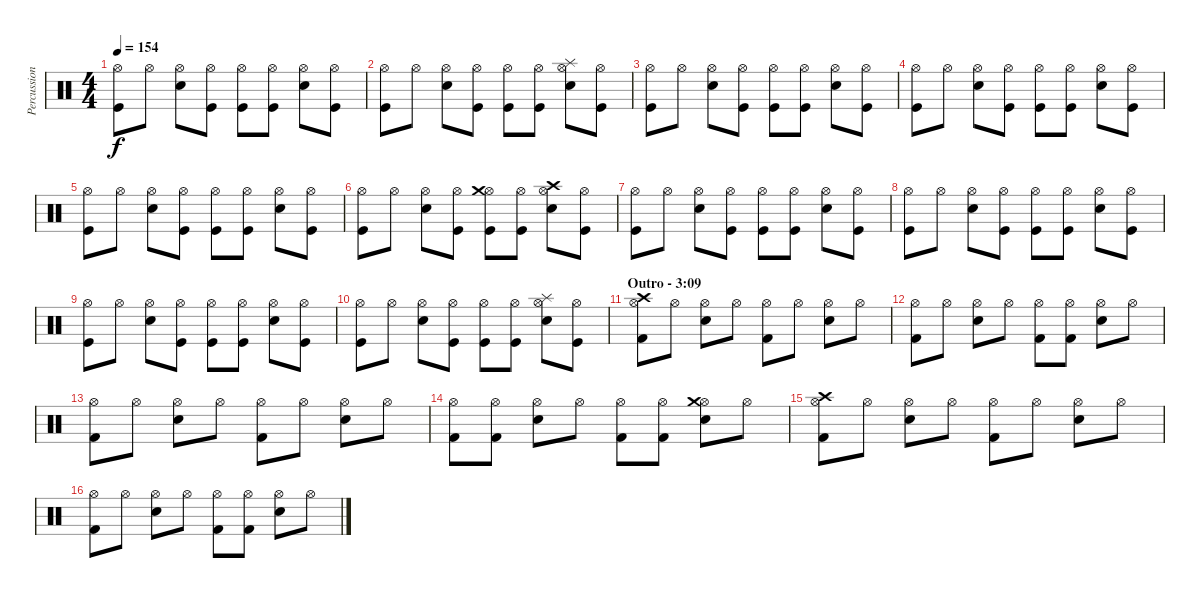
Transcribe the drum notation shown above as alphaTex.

\track ("Percussioni" "Percussion") {instrument percussion}
\staff {score}
\articulation defaults
\ts (4 4)
\tempo 154
\clef neutral
\ks c
("Hi-Hat (open)" "Kick (hit)").8{dy f} "Hi-Hat (open)".8 ("Hi-Hat (open)" "Electric Snare (hit)").8 ("Hi-Hat (open)" "Kick (hit)").8 ("Hi-Hat (open)" "Kick (hit)").8 ("Hi-Hat (open)" "Kick (hit)").8 ("Hi-Hat (open)" "Electric Snare (hit)").8 ("Hi-Hat (open)" "Kick (hit)").8 |
("Hi-Hat (open)" "Kick (hit)").8 "Hi-Hat (open)".8 ("Hi-Hat (open)" "Electric Snare (hit)").8 ("Hi-Hat (open)" "Kick (hit)").8 ("Hi-Hat (open)" "Kick (hit)").8 ("Hi-Hat (open)" "Kick (hit)").8 ("Hi-Hat (open)" "Splash (hit)" "Electric Snare (hit)").8 ("Hi-Hat (open)" "Kick (hit)").8 |
("Hi-Hat (open)" "Kick (hit)").8 "Hi-Hat (open)".8 ("Hi-Hat (open)" "Electric Snare (hit)").8 ("Hi-Hat (open)" "Kick (hit)").8 ("Hi-Hat (open)" "Kick (hit)").8 ("Hi-Hat (open)" "Kick (hit)").8 ("Hi-Hat (open)" "Electric Snare (hit)").8 ("Hi-Hat (open)" "Kick (hit)").8 |
("Hi-Hat (open)" "Kick (hit)").8 "Hi-Hat (open)".8 ("Hi-Hat (open)" "Electric Snare (hit)").8 ("Hi-Hat (open)" "Kick (hit)").8 ("Hi-Hat (open)" "Kick (hit)").8 ("Hi-Hat (open)" "Kick (hit)").8 ("Hi-Hat (open)" "Electric Snare (hit)").8 ("Hi-Hat (open)" "Kick (hit)").8 |
("Hi-Hat (open)" "Kick (hit)").8 "Hi-Hat (open)".8 ("Hi-Hat (open)" "Electric Snare (hit)").8 ("Hi-Hat (open)" "Kick (hit)").8 ("Hi-Hat (open)" "Kick (hit)").8 ("Hi-Hat (open)" "Kick (hit)").8 ("Hi-Hat (open)" "Electric Snare (hit)").8 ("Hi-Hat (open)" "Kick (hit)").8 |
("Hi-Hat (open)" "Kick (hit)").8 "Hi-Hat (open)".8 ("Hi-Hat (open)" "Electric Snare (hit)").8 ("Hi-Hat (open)" "Kick (hit)").8 ("Hi-Hat (open)" "Crash medium (hit)" "Kick (hit)").8 ("Hi-Hat (open)" "Kick (hit)").8 ("Hi-Hat (open)" "Crash high (hit)" "Electric Snare (hit)").8 ("Hi-Hat (open)" "Kick (hit)").8 |
("Hi-Hat (open)" "Kick (hit)").8 "Hi-Hat (open)".8 ("Hi-Hat (open)" "Electric Snare (hit)").8 ("Hi-Hat (open)" "Kick (hit)").8 ("Hi-Hat (open)" "Kick (hit)").8 ("Hi-Hat (open)" "Kick (hit)").8 ("Hi-Hat (open)" "Electric Snare (hit)").8 ("Hi-Hat (open)" "Kick (hit)").8 |
("Hi-Hat (open)" "Kick (hit)").8 "Hi-Hat (open)".8 ("Hi-Hat (open)" "Electric Snare (hit)").8 ("Hi-Hat (open)" "Kick (hit)").8 ("Hi-Hat (open)" "Kick (hit)").8 ("Hi-Hat (open)" "Kick (hit)").8 ("Hi-Hat (open)" "Electric Snare (hit)").8 ("Hi-Hat (open)" "Kick (hit)").8 |
("Hi-Hat (open)" "Kick (hit)").8 "Hi-Hat (open)".8 ("Hi-Hat (open)" "Electric Snare (hit)").8 ("Hi-Hat (open)" "Kick (hit)").8 ("Hi-Hat (open)" "Kick (hit)").8 ("Hi-Hat (open)" "Kick (hit)").8 ("Hi-Hat (open)" "Electric Snare (hit)").8 ("Hi-Hat (open)" "Kick (hit)").8 |
("Hi-Hat (open)" "Kick (hit)").8 "Hi-Hat (open)".8 ("Hi-Hat (open)" "Electric Snare (hit)").8 ("Hi-Hat (open)" "Kick (hit)").8 ("Hi-Hat (open)" "Kick (hit)").8 ("Hi-Hat (open)" "Kick (hit)").8 ("Hi-Hat (open)" "Splash (hit)" "Electric Snare (hit)").8 ("Hi-Hat (open)" "Kick (hit)").8 |
\section ("" "Outro - 3:09")
("Hi-Hat (open)" "Kick (hit) 2" "Crash high (hit)").8{volume 16} "Hi-Hat (open)".8 ("Hi-Hat (open)" "Electric Snare (hit)").8 "Hi-Hat (open)".8 ("Hi-Hat (open)" "Kick (hit) 2").8 "Hi-Hat (open)".8 ("Hi-Hat (open)" "Electric Snare (hit)").8 "Hi-Hat (open)".8 |
("Hi-Hat (open)" "Kick (hit) 2").8 "Hi-Hat (open)".8 ("Hi-Hat (open)" "Electric Snare (hit)").8 "Hi-Hat (open)".8 ("Hi-Hat (open)" "Kick (hit) 2").8 ("Hi-Hat (open)" "Kick (hit) 2").8 ("Hi-Hat (open)" "Electric Snare (hit)").8 "Hi-Hat (open)".8 |
("Hi-Hat (open)" "Kick (hit) 2").8 "Hi-Hat (open)".8 ("Hi-Hat (open)" "Electric Snare (hit)").8 "Hi-Hat (open)".8 ("Hi-Hat (open)" "Kick (hit) 2").8 "Hi-Hat (open)".8 ("Hi-Hat (open)" "Electric Snare (hit)").8 "Hi-Hat (open)".8 |
("Hi-Hat (open)" "Kick (hit) 2").8 ("Hi-Hat (open)" "Kick (hit) 2").8 ("Hi-Hat (open)" "Electric Snare (hit)").8 "Hi-Hat (open)".8 ("Hi-Hat (open)" "Kick (hit) 2").8 ("Hi-Hat (open)" "Kick (hit) 2").8 ("Hi-Hat (open)" "Electric Snare (hit)" "Crash medium (hit)").8 "Hi-Hat (open)".8 |
("Hi-Hat (open)" "Kick (hit) 2" "Crash high (hit)").8{volume 16} "Hi-Hat (open)".8 ("Hi-Hat (open)" "Electric Snare (hit)").8 "Hi-Hat (open)".8 ("Hi-Hat (open)" "Kick (hit) 2").8 "Hi-Hat (open)".8 ("Hi-Hat (open)" "Electric Snare (hit)").8 "Hi-Hat (open)".8 |
("Hi-Hat (open)" "Kick (hit) 2").8 "Hi-Hat (open)".8 ("Hi-Hat (open)" "Electric Snare (hit)").8 "Hi-Hat (open)".8 ("Hi-Hat (open)" "Kick (hit) 2").8 ("Hi-Hat (open)" "Kick (hit) 2").8 ("Hi-Hat (open)" "Electric Snare (hit)").8 "Hi-Hat (open)".8
